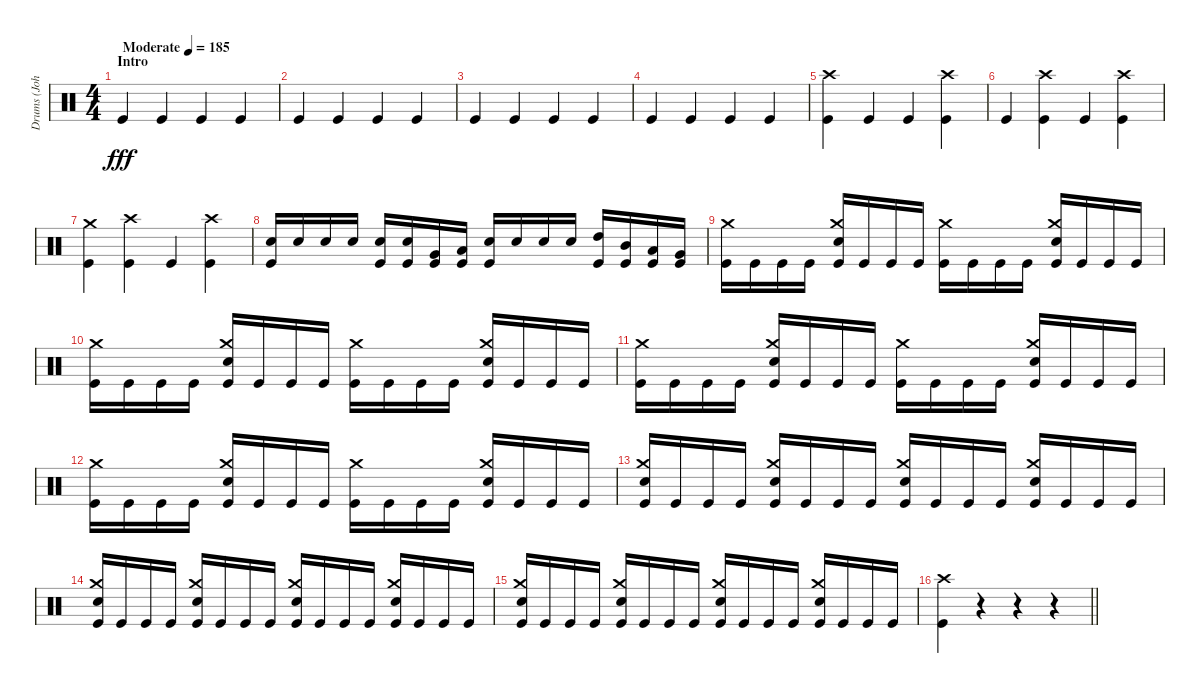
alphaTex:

\track ("Drums (John Bengtsson)" "Drums (Joh") {instrument percussion}
\staff {score}
\articulation defaults
\ts (4 4)
\section ("" "Intro")
\tempo (185 "Moderate")
\clef neutral
\ks c "Kick (hit)".4{dy fff} "Kick (hit)".4 "Kick (hit)".4 "Kick (hit)".4
|
"Kick (hit)".4 "Kick (hit)".4 "Kick (hit)".4 "Kick (hit)".4 |
"Kick (hit)".4 "Kick (hit)".4 "Kick (hit)".4 "Kick (hit)".4 |
"Kick (hit)".4 "Kick (hit)".4 "Kick (hit)".4 "Kick (hit)".4 |
("Crash high (hit)" "Kick (hit)").4 "Kick (hit)".4 "Kick (hit)".4 ("Crash high (hit)" "Kick (hit)").4 |
"Kick (hit)".4 ("Crash high (hit)" "Kick (hit)").4 "Kick (hit)".4 ("Crash high (hit)" "Kick (hit)").4 |
("Crash medium (hit)" "Kick (hit)").4 ("Crash high (hit)" "Kick (hit)").4 "Kick (hit)".4 ("Crash high (hit)" "Kick (hit)").4 |
("Electric Snare (hit)" "Kick (hit)").16 "Electric Snare (hit)".16 "Electric Snare (hit)".16 "Electric Snare (hit)".16 ("Electric Snare (hit)" "Kick (hit)").16 ("Electric Snare (hit)" "Kick (hit)").16 ("Very Low Tom (hit)" "Kick (hit)").16 ("Low Floor Tom (hit)" "Kick (hit)").16 ("Electric Snare (hit)" "Kick (hit)").16 "Electric Snare (hit)".16 "Electric Snare (hit)".16 "Electric Snare (hit)".16 ("High Tom (hit)" "Kick (hit)").16 ("Mid Tom (hit)" "Kick (hit)").16 ("Low Tom (hit)" "Kick (hit)").16 ("Very Low Tom (hit)" "Kick (hit)").16 |
("Crash medium (hit)" "Kick (hit)").16 "Kick (hit)".16 "Kick (hit)".16 "Kick (hit)".16 ("Crash medium (hit)" "Electric Snare (hit)" "Kick (hit)").16 "Kick (hit)".16 "Kick (hit)".16 "Kick (hit)".16 ("Crash medium (hit)" "Kick (hit)").16 "Kick (hit)".16 "Kick (hit)".16 "Kick (hit)".16 ("Crash medium (hit)" "Electric Snare (hit)" "Kick (hit)").16 "Kick (hit)".16 "Kick (hit)".16 "Kick (hit)".16 |
("Crash medium (hit)" "Kick (hit)").16 "Kick (hit)".16 "Kick (hit)".16 "Kick (hit)".16 ("Crash medium (hit)" "Electric Snare (hit)" "Kick (hit)").16 "Kick (hit)".16 "Kick (hit)".16 "Kick (hit)".16 ("Crash medium (hit)" "Kick (hit)").16 "Kick (hit)".16 "Kick (hit)".16 "Kick (hit)".16 ("Crash medium (hit)" "Electric Snare (hit)" "Kick (hit)").16 "Kick (hit)".16 "Kick (hit)".16 "Kick (hit)".16 |
("Crash medium (hit)" "Kick (hit)").16 "Kick (hit)".16 "Kick (hit)".16 "Kick (hit)".16 ("Crash medium (hit)" "Electric Snare (hit)" "Kick (hit)").16 "Kick (hit)".16 "Kick (hit)".16 "Kick (hit)".16 ("Crash medium (hit)" "Kick (hit)").16 "Kick (hit)".16 "Kick (hit)".16 "Kick (hit)".16 ("Crash medium (hit)" "Electric Snare (hit)" "Kick (hit)").16 "Kick (hit)".16 "Kick (hit)".16 "Kick (hit)".16 |
("Crash medium (hit)" "Kick (hit)").16 "Kick (hit)".16 "Kick (hit)".16 "Kick (hit)".16 ("Crash medium (hit)" "Electric Snare (hit)" "Kick (hit)").16 "Kick (hit)".16 "Kick (hit)".16 "Kick (hit)".16 ("Crash medium (hit)" "Kick (hit)").16 "Kick (hit)".16 "Kick (hit)".16 "Kick (hit)".16 ("Crash medium (hit)" "Electric Snare (hit)" "Kick (hit)").16 "Kick (hit)".16 "Kick (hit)".16 "Kick (hit)".16 |
("Crash medium (hit)" "Electric Snare (hit)" "Kick (hit)").16 "Kick (hit)".16 "Kick (hit)".16 "Kick (hit)".16 ("Crash medium (hit)" "Electric Snare (hit)" "Kick (hit)").16 "Kick (hit)".16 "Kick (hit)".16 "Kick (hit)".16 ("Crash medium (hit)" "Electric Snare (hit)" "Kick (hit)").16 "Kick (hit)".16 "Kick (hit)".16 "Kick (hit)".16 ("Crash medium (hit)" "Electric Snare (hit)" "Kick (hit)").16 "Kick (hit)".16 "Kick (hit)".16 "Kick (hit)".16 |
("Crash medium (hit)" "Electric Snare (hit)" "Kick (hit)").16 "Kick (hit)".16 "Kick (hit)".16 "Kick (hit)".16 ("Crash medium (hit)" "Electric Snare (hit)" "Kick (hit)").16 "Kick (hit)".16 "Kick (hit)".16 "Kick (hit)".16 ("Crash medium (hit)" "Electric Snare (hit)" "Kick (hit)").16 "Kick (hit)".16 "Kick (hit)".16 "Kick (hit)".16 ("Crash medium (hit)" "Electric Snare (hit)" "Kick (hit)").16 "Kick (hit)".16 "Kick (hit)".16 "Kick (hit)".16 |
("Crash medium (hit)" "Electric Snare (hit)" "Kick (hit)").16 "Kick (hit)".16 "Kick (hit)".16 "Kick (hit)".16 ("Crash medium (hit)" "Electric Snare (hit)" "Kick (hit)").16 "Kick (hit)".16 "Kick (hit)".16 "Kick (hit)".16 ("Crash medium (hit)" "Electric Snare (hit)" "Kick (hit)").16 "Kick (hit)".16 "Kick (hit)".16 "Kick (hit)".16 ("Crash medium (hit)" "Electric Snare (hit)" "Kick (hit)").16 "Kick (hit)".16 "Kick (hit)".16 "Kick (hit)".16 |
\barLineRight lightlight
("Crash high (hit)" "Kick (hit)").4 r.4 r.4 r.4
